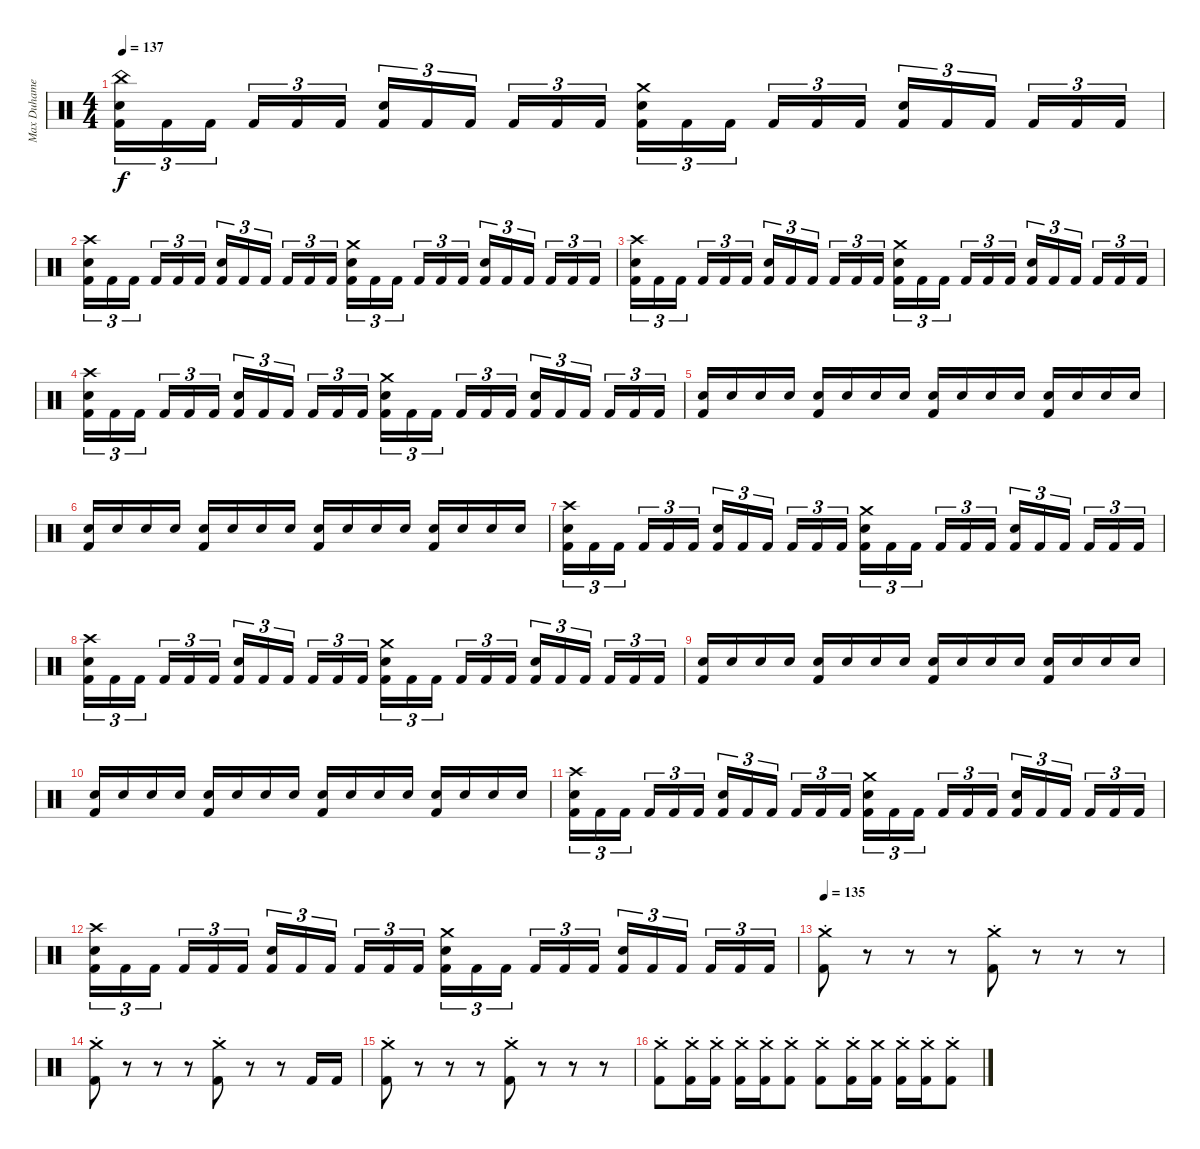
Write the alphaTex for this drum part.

\track ("Max Duhamel (Drums)" "Max Duhame") {instrument percussion}
\staff {score}
\articulation defaults
\ts (4 4)
\tempo 137
\clef neutral
\ks c
("China (hit)" "Electric Snare (hit)" "Kick (hit) 2").16{tu (3 2) dy f} "Kick (hit) 2".16{tu (3 2)} "Kick (hit) 2".16{tu (3 2) beam splitsecondary} "Kick (hit) 2".16{tu (3 2)} "Kick (hit) 2".16{tu (3 2)} "Kick (hit) 2".16{tu (3 2)} ("Electric Snare (hit)" "Kick (hit) 2").16{tu (3 2)} "Kick (hit) 2".16{tu (3 2)} "Kick (hit) 2".16{tu (3 2) beam splitsecondary} "Kick (hit) 2".16{tu (3 2)} "Kick (hit) 2".16{tu (3 2)} "Kick (hit) 2".16{tu (3 2)} ("Crash medium (hit)" "Electric Snare (hit)" "Kick (hit) 2").16{tu (3 2)} "Kick (hit) 2".16{tu (3 2)} "Kick (hit) 2".16{tu (3 2) beam splitsecondary} "Kick (hit) 2".16{tu (3 2)} "Kick (hit) 2".16{tu (3 2)} "Kick (hit) 2".16{tu (3 2)} ("Electric Snare (hit)" "Kick (hit) 2").16{tu (3 2)} "Kick (hit) 2".16{tu (3 2)} "Kick (hit) 2".16{tu (3 2) beam splitsecondary} "Kick (hit) 2".16{tu (3 2)} "Kick (hit) 2".16{tu (3 2)} "Kick (hit) 2".16{tu (3 2)} |
("Crash high (hit)" "Electric Snare (hit)" "Kick (hit) 2").16{tu (3 2)} "Kick (hit) 2".16{tu (3 2)} "Kick (hit) 2".16{tu (3 2) beam splitsecondary} "Kick (hit) 2".16{tu (3 2)} "Kick (hit) 2".16{tu (3 2)} "Kick (hit) 2".16{tu (3 2)} ("Electric Snare (hit)" "Kick (hit) 2").16{tu (3 2)} "Kick (hit) 2".16{tu (3 2)} "Kick (hit) 2".16{tu (3 2) beam splitsecondary} "Kick (hit) 2".16{tu (3 2)} "Kick (hit) 2".16{tu (3 2)} "Kick (hit) 2".16{tu (3 2)} ("Crash medium (hit)" "Electric Snare (hit)" "Kick (hit) 2").16{tu (3 2)} "Kick (hit) 2".16{tu (3 2)} "Kick (hit) 2".16{tu (3 2) beam splitsecondary} "Kick (hit) 2".16{tu (3 2)} "Kick (hit) 2".16{tu (3 2)} "Kick (hit) 2".16{tu (3 2)} ("Electric Snare (hit)" "Kick (hit) 2").16{tu (3 2)} "Kick (hit) 2".16{tu (3 2)} "Kick (hit) 2".16{tu (3 2) beam splitsecondary} "Kick (hit) 2".16{tu (3 2)} "Kick (hit) 2".16{tu (3 2)} "Kick (hit) 2".16{tu (3 2)} |
("Crash high (hit)" "Electric Snare (hit)" "Kick (hit) 2").16{tu (3 2)} "Kick (hit) 2".16{tu (3 2)} "Kick (hit) 2".16{tu (3 2) beam splitsecondary} "Kick (hit) 2".16{tu (3 2)} "Kick (hit) 2".16{tu (3 2)} "Kick (hit) 2".16{tu (3 2)} ("Electric Snare (hit)" "Kick (hit) 2").16{tu (3 2)} "Kick (hit) 2".16{tu (3 2)} "Kick (hit) 2".16{tu (3 2) beam splitsecondary} "Kick (hit) 2".16{tu (3 2)} "Kick (hit) 2".16{tu (3 2)} "Kick (hit) 2".16{tu (3 2)} ("Crash medium (hit)" "Electric Snare (hit)" "Kick (hit) 2").16{tu (3 2)} "Kick (hit) 2".16{tu (3 2)} "Kick (hit) 2".16{tu (3 2) beam splitsecondary} "Kick (hit) 2".16{tu (3 2)} "Kick (hit) 2".16{tu (3 2)} "Kick (hit) 2".16{tu (3 2)} ("Electric Snare (hit)" "Kick (hit) 2").16{tu (3 2)} "Kick (hit) 2".16{tu (3 2)} "Kick (hit) 2".16{tu (3 2) beam splitsecondary} "Kick (hit) 2".16{tu (3 2)} "Kick (hit) 2".16{tu (3 2)} "Kick (hit) 2".16{tu (3 2)} |
("Crash high (hit)" "Electric Snare (hit)" "Kick (hit) 2").16{tu (3 2)} "Kick (hit) 2".16{tu (3 2)} "Kick (hit) 2".16{tu (3 2) beam splitsecondary} "Kick (hit) 2".16{tu (3 2)} "Kick (hit) 2".16{tu (3 2)} "Kick (hit) 2".16{tu (3 2)} ("Electric Snare (hit)" "Kick (hit) 2").16{tu (3 2)} "Kick (hit) 2".16{tu (3 2)} "Kick (hit) 2".16{tu (3 2) beam splitsecondary} "Kick (hit) 2".16{tu (3 2)} "Kick (hit) 2".16{tu (3 2)} "Kick (hit) 2".16{tu (3 2)} ("Crash medium (hit)" "Electric Snare (hit)" "Kick (hit) 2").16{tu (3 2)} "Kick (hit) 2".16{tu (3 2)} "Kick (hit) 2".16{tu (3 2) beam splitsecondary} "Kick (hit) 2".16{tu (3 2)} "Kick (hit) 2".16{tu (3 2)} "Kick (hit) 2".16{tu (3 2)} ("Electric Snare (hit)" "Kick (hit) 2").16{tu (3 2)} "Kick (hit) 2".16{tu (3 2)} "Kick (hit) 2".16{tu (3 2) beam splitsecondary} "Kick (hit) 2".16{tu (3 2)} "Kick (hit) 2".16{tu (3 2)} "Kick (hit) 2".16{tu (3 2)} |
("Electric Snare (hit)" "Kick (hit) 2").16 "Electric Snare (hit)".16 "Electric Snare (hit)".16 "Electric Snare (hit)".16 ("Electric Snare (hit)" "Kick (hit) 2").16 "Electric Snare (hit)".16 "Electric Snare (hit)".16 "Electric Snare (hit)".16 ("Electric Snare (hit)" "Kick (hit) 2").16 "Electric Snare (hit)".16 "Electric Snare (hit)".16 "Electric Snare (hit)".16 ("Electric Snare (hit)" "Kick (hit) 2").16 "Electric Snare (hit)".16 "Electric Snare (hit)".16 "Electric Snare (hit)".16 |
("Electric Snare (hit)" "Kick (hit) 2").16 "Electric Snare (hit)".16 "Electric Snare (hit)".16 "Electric Snare (hit)".16 ("Electric Snare (hit)" "Kick (hit) 2").16 "Electric Snare (hit)".16 "Electric Snare (hit)".16 "Electric Snare (hit)".16 ("Electric Snare (hit)" "Kick (hit) 2").16 "Electric Snare (hit)".16 "Electric Snare (hit)".16 "Electric Snare (hit)".16 ("Electric Snare (hit)" "Kick (hit) 2").16 "Electric Snare (hit)".16 "Electric Snare (hit)".16 "Electric Snare (hit)".16 |
("Crash high (hit)" "Electric Snare (hit)" "Kick (hit) 2").16{tu (3 2)} "Kick (hit) 2".16{tu (3 2)} "Kick (hit) 2".16{tu (3 2) beam splitsecondary} "Kick (hit) 2".16{tu (3 2)} "Kick (hit) 2".16{tu (3 2)} "Kick (hit) 2".16{tu (3 2)} ("Electric Snare (hit)" "Kick (hit) 2").16{tu (3 2)} "Kick (hit) 2".16{tu (3 2)} "Kick (hit) 2".16{tu (3 2) beam splitsecondary} "Kick (hit) 2".16{tu (3 2)} "Kick (hit) 2".16{tu (3 2)} "Kick (hit) 2".16{tu (3 2)} ("Crash medium (hit)" "Electric Snare (hit)" "Kick (hit) 2").16{tu (3 2)} "Kick (hit) 2".16{tu (3 2)} "Kick (hit) 2".16{tu (3 2) beam splitsecondary} "Kick (hit) 2".16{tu (3 2)} "Kick (hit) 2".16{tu (3 2)} "Kick (hit) 2".16{tu (3 2)} ("Electric Snare (hit)" "Kick (hit) 2").16{tu (3 2)} "Kick (hit) 2".16{tu (3 2)} "Kick (hit) 2".16{tu (3 2) beam splitsecondary} "Kick (hit) 2".16{tu (3 2)} "Kick (hit) 2".16{tu (3 2)} "Kick (hit) 2".16{tu (3 2)} |
("Crash high (hit)" "Electric Snare (hit)" "Kick (hit) 2").16{tu (3 2)} "Kick (hit) 2".16{tu (3 2)} "Kick (hit) 2".16{tu (3 2) beam splitsecondary} "Kick (hit) 2".16{tu (3 2)} "Kick (hit) 2".16{tu (3 2)} "Kick (hit) 2".16{tu (3 2)} ("Electric Snare (hit)" "Kick (hit) 2").16{tu (3 2)} "Kick (hit) 2".16{tu (3 2)} "Kick (hit) 2".16{tu (3 2) beam splitsecondary} "Kick (hit) 2".16{tu (3 2)} "Kick (hit) 2".16{tu (3 2)} "Kick (hit) 2".16{tu (3 2)} ("Crash medium (hit)" "Electric Snare (hit)" "Kick (hit) 2").16{tu (3 2)} "Kick (hit) 2".16{tu (3 2)} "Kick (hit) 2".16{tu (3 2) beam splitsecondary} "Kick (hit) 2".16{tu (3 2)} "Kick (hit) 2".16{tu (3 2)} "Kick (hit) 2".16{tu (3 2)} ("Electric Snare (hit)" "Kick (hit) 2").16{tu (3 2)} "Kick (hit) 2".16{tu (3 2)} "Kick (hit) 2".16{tu (3 2) beam splitsecondary} "Kick (hit) 2".16{tu (3 2)} "Kick (hit) 2".16{tu (3 2)} "Kick (hit) 2".16{tu (3 2)} |
("Electric Snare (hit)" "Kick (hit) 2").16 "Electric Snare (hit)".16 "Electric Snare (hit)".16 "Electric Snare (hit)".16 ("Electric Snare (hit)" "Kick (hit) 2").16 "Electric Snare (hit)".16 "Electric Snare (hit)".16 "Electric Snare (hit)".16 ("Electric Snare (hit)" "Kick (hit) 2").16 "Electric Snare (hit)".16 "Electric Snare (hit)".16 "Electric Snare (hit)".16 ("Electric Snare (hit)" "Kick (hit) 2").16 "Electric Snare (hit)".16 "Electric Snare (hit)".16 "Electric Snare (hit)".16 |
("Electric Snare (hit)" "Kick (hit) 2").16 "Electric Snare (hit)".16 "Electric Snare (hit)".16 "Electric Snare (hit)".16 ("Electric Snare (hit)" "Kick (hit) 2").16 "Electric Snare (hit)".16 "Electric Snare (hit)".16 "Electric Snare (hit)".16 ("Electric Snare (hit)" "Kick (hit) 2").16 "Electric Snare (hit)".16 "Electric Snare (hit)".16 "Electric Snare (hit)".16 ("Electric Snare (hit)" "Kick (hit) 2").16 "Electric Snare (hit)".16 "Electric Snare (hit)".16 "Electric Snare (hit)".16 |
("Crash high (hit)" "Electric Snare (hit)" "Kick (hit) 2").16{tu (3 2)} "Kick (hit) 2".16{tu (3 2)} "Kick (hit) 2".16{tu (3 2) beam splitsecondary} "Kick (hit) 2".16{tu (3 2)} "Kick (hit) 2".16{tu (3 2)} "Kick (hit) 2".16{tu (3 2)} ("Electric Snare (hit)" "Kick (hit) 2").16{tu (3 2)} "Kick (hit) 2".16{tu (3 2)} "Kick (hit) 2".16{tu (3 2) beam splitsecondary} "Kick (hit) 2".16{tu (3 2)} "Kick (hit) 2".16{tu (3 2)} "Kick (hit) 2".16{tu (3 2)} ("Crash medium (hit)" "Electric Snare (hit)" "Kick (hit) 2").16{tu (3 2)} "Kick (hit) 2".16{tu (3 2)} "Kick (hit) 2".16{tu (3 2) beam splitsecondary} "Kick (hit) 2".16{tu (3 2)} "Kick (hit) 2".16{tu (3 2)} "Kick (hit) 2".16{tu (3 2)} ("Electric Snare (hit)" "Kick (hit) 2").16{tu (3 2)} "Kick (hit) 2".16{tu (3 2)} "Kick (hit) 2".16{tu (3 2) beam splitsecondary} "Kick (hit) 2".16{tu (3 2)} "Kick (hit) 2".16{tu (3 2)} "Kick (hit) 2".16{tu (3 2)} |
("Crash high (hit)" "Electric Snare (hit)" "Kick (hit) 2").16{tu (3 2)} "Kick (hit) 2".16{tu (3 2)} "Kick (hit) 2".16{tu (3 2) beam splitsecondary} "Kick (hit) 2".16{tu (3 2)} "Kick (hit) 2".16{tu (3 2)} "Kick (hit) 2".16{tu (3 2)} ("Electric Snare (hit)" "Kick (hit) 2").16{tu (3 2)} "Kick (hit) 2".16{tu (3 2)} "Kick (hit) 2".16{tu (3 2) beam splitsecondary} "Kick (hit) 2".16{tu (3 2)} "Kick (hit) 2".16{tu (3 2)} "Kick (hit) 2".16{tu (3 2)} ("Crash medium (hit)" "Electric Snare (hit)" "Kick (hit) 2").16{tu (3 2)} "Kick (hit) 2".16{tu (3 2)} "Kick (hit) 2".16{tu (3 2) beam splitsecondary} "Kick (hit) 2".16{tu (3 2)} "Kick (hit) 2".16{tu (3 2)} "Kick (hit) 2".16{tu (3 2)} ("Electric Snare (hit)" "Kick (hit) 2").16{tu (3 2)} "Kick (hit) 2".16{tu (3 2)} "Kick (hit) 2".16{tu (3 2) beam splitsecondary} "Kick (hit) 2".16{tu (3 2)} "Kick (hit) 2".16{tu (3 2)} "Kick (hit) 2".16{tu (3 2)} |
\tempo 135
("Crash medium (hit)"{st} "Kick (hit) 2").8 r.8 r.8 r.8 ("Crash medium (hit)"{st} "Kick (hit) 2").8 r.8 r.8 r.8 |
("Crash medium (hit)"{st} "Kick (hit) 2").8 r.8 r.8 r.8 ("Crash medium (hit)"{st} "Kick (hit) 2").8 r.8 r.8 "Kick (hit) 2".16 "Kick (hit) 2".16 |
("Crash medium (hit)"{st} "Kick (hit) 2").8 r.8 r.8 r.8 ("Crash medium (hit)"{st} "Kick (hit) 2").8 r.8 r.8 r.8 |
("Crash medium (hit)"{st} "Kick (hit) 2").8 ("Crash medium (hit)"{st} "Kick (hit) 2").16 ("Crash medium (hit)"{st} "Kick (hit) 2").16 ("Crash medium (hit)"{st} "Kick (hit) 2").16 ("Crash medium (hit)"{st} "Kick (hit) 2").16 ("Crash medium (hit)"{st} "Kick (hit) 2").8 ("Crash medium (hit)"{st} "Kick (hit) 2").8 ("Crash medium (hit)"{st} "Kick (hit) 2").16 ("Crash medium (hit)" "Kick (hit) 2").16 ("Crash medium (hit)"{st} "Kick (hit) 2").16 ("Crash medium (hit)"{st} "Kick (hit) 2").16 ("Crash medium (hit)"{st} "Kick (hit) 2").8
